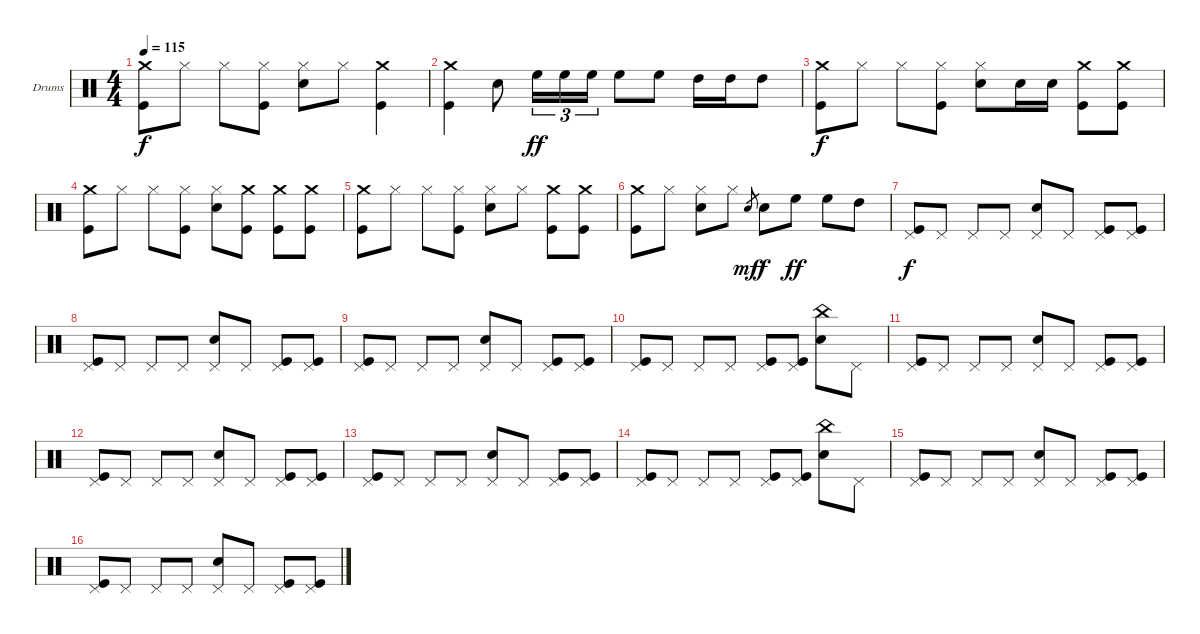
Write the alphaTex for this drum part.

\defaultSystemsLayout 4
\bracketExtendMode groupsimilarinstruments
\firstSystemTrackNameOrientation horizontal
\otherSystemsTrackNameOrientation horizontal
\track ("Drumkit" "Drums") {instrument percussion}
\staff {score}
\articulation defaults
\ts (4 4)
\tempo 115
\clef neutral
\ks c
("Crash medium (hit)" "Kick (hit)").8{dy f} "Hi-Hat (closed)".8 "Hi-Hat (closed)".8 ("Hi-Hat (closed)" "Kick (hit)").8 ("Hi-Hat (closed)" "Snare (hit) 2").8 "Hi-Hat (closed)".8 ("Crash medium (hit)" "Kick (hit)").4 |
("Crash medium (hit)" "Kick (hit)").4 "Snare (hit) 2".8 "High Floor Tom (hit)".16{tu (3 2) dy ff} "High Floor Tom (hit)".16{tu (3 2)} "High Floor Tom (hit)".16{tu (3 2)} "High Floor Tom (hit)".8 "High Floor Tom (hit)".8 "High Tom (hit)".16 "High Tom (hit)".16 "High Tom (hit)".8 |
("Crash medium (hit)" "Kick (hit)").8{dy f} "Hi-Hat (closed)".8 "Hi-Hat (closed)".8 ("Hi-Hat (closed)" "Kick (hit)").8 ("Hi-Hat (closed)" "Snare (hit) 2").8 "Snare (hit) 2".16 "Snare (hit) 2".16 ("Crash medium (hit)" "Kick (hit)").8 ("Crash medium (hit)" "Kick (hit)").8 |
("Crash medium (hit)" "Kick (hit)").8 "Hi-Hat (closed)".8 "Hi-Hat (closed)".8 ("Hi-Hat (closed)" "Kick (hit)").8 ("Hi-Hat (closed)" "Snare (hit) 2").8 ("Crash medium (hit)" "Kick (hit)").8 ("Crash medium (hit)" "Kick (hit)").8 ("Crash medium (hit)" "Kick (hit)").8 |
("Crash medium (hit)" "Kick (hit)").8 "Hi-Hat (closed)".8 "Hi-Hat (closed)".8 ("Hi-Hat (closed)" "Kick (hit)").8 ("Hi-Hat (closed)" "Snare (hit) 2").8 "Hi-Hat (closed)".8 ("Crash medium (hit)" "Kick (hit)").8 ("Crash medium (hit)" "Kick (hit)").8 |
("Crash medium (hit)" "Kick (hit)").8 "Hi-Hat (closed)".8 ("Hi-Hat (closed)" "Snare (hit) 2").8 "Hi-Hat (closed)".8 "Snare (hit) 2".8{gr dy mf} "Snare (hit) 2".8{dy f} "High Floor Tom (hit)".8{dy ff} "High Floor Tom (hit)".8 "High Tom (hit)".8 |
("Pedal Hi-Hat (hit)" "Kick (hit)").8{dy f} "Pedal Hi-Hat (hit)".8 "Pedal Hi-Hat (hit)".8 "Pedal Hi-Hat (hit)".8 ("Pedal Hi-Hat (hit)" "Snare (hit) 2").8 "Pedal Hi-Hat (hit)".8 ("Pedal Hi-Hat (hit)" "Kick (hit)").8 ("Pedal Hi-Hat (hit)" "Kick (hit)").8 |
("Kick (hit)" "Pedal Hi-Hat (hit)").8 "Pedal Hi-Hat (hit)".8 "Pedal Hi-Hat (hit)".8 "Pedal Hi-Hat (hit)".8 ("Pedal Hi-Hat (hit)" "Snare (hit) 2").8 "Pedal Hi-Hat (hit)".8 ("Pedal Hi-Hat (hit)" "Kick (hit)").8 ("Pedal Hi-Hat (hit)" "Kick (hit)").8 |
("Kick (hit)" "Pedal Hi-Hat (hit)").8 "Pedal Hi-Hat (hit)".8 "Pedal Hi-Hat (hit)".8 "Pedal Hi-Hat (hit)".8 ("Pedal Hi-Hat (hit)" "Snare (hit) 2").8 "Pedal Hi-Hat (hit)".8 ("Pedal Hi-Hat (hit)" "Kick (hit)").8 ("Pedal Hi-Hat (hit)" "Kick (hit)").8 |
("Kick (hit)" "Pedal Hi-Hat (hit)").8 "Pedal Hi-Hat (hit)".8 "Pedal Hi-Hat (hit)".8 "Pedal Hi-Hat (hit)".8 ("Pedal Hi-Hat (hit)" "Kick (hit)").8 ("Pedal Hi-Hat (hit)" "Kick (hit)").8 ("China (hit)" "Snare (hit) 2").8 "Pedal Hi-Hat (hit)".8 |
("Pedal Hi-Hat (hit)" "Kick (hit)").8 "Pedal Hi-Hat (hit)".8 "Pedal Hi-Hat (hit)".8 "Pedal Hi-Hat (hit)".8 ("Pedal Hi-Hat (hit)" "Snare (hit) 2").8 "Pedal Hi-Hat (hit)".8 ("Pedal Hi-Hat (hit)" "Kick (hit)").8 ("Pedal Hi-Hat (hit)" "Kick (hit)").8 |
("Kick (hit)" "Pedal Hi-Hat (hit)").8 "Pedal Hi-Hat (hit)".8 "Pedal Hi-Hat (hit)".8 "Pedal Hi-Hat (hit)".8 ("Pedal Hi-Hat (hit)" "Snare (hit) 2").8 "Pedal Hi-Hat (hit)".8 ("Pedal Hi-Hat (hit)" "Kick (hit)").8 ("Pedal Hi-Hat (hit)" "Kick (hit)").8 |
("Kick (hit)" "Pedal Hi-Hat (hit)").8 "Pedal Hi-Hat (hit)".8 "Pedal Hi-Hat (hit)".8 "Pedal Hi-Hat (hit)".8 ("Pedal Hi-Hat (hit)" "Snare (hit) 2").8 "Pedal Hi-Hat (hit)".8 ("Pedal Hi-Hat (hit)" "Kick (hit)").8 ("Pedal Hi-Hat (hit)" "Kick (hit)").8 |
("Kick (hit)" "Pedal Hi-Hat (hit)").8 "Pedal Hi-Hat (hit)".8 "Pedal Hi-Hat (hit)".8 "Pedal Hi-Hat (hit)".8 ("Pedal Hi-Hat (hit)" "Kick (hit)").8 ("Pedal Hi-Hat (hit)" "Kick (hit)").8 ("China (hit)" "Snare (hit) 2").8 "Pedal Hi-Hat (hit)".8 |
("Pedal Hi-Hat (hit)" "Kick (hit)").8 "Pedal Hi-Hat (hit)".8 "Pedal Hi-Hat (hit)".8 "Pedal Hi-Hat (hit)".8 ("Pedal Hi-Hat (hit)" "Snare (hit) 2").8 "Pedal Hi-Hat (hit)".8 ("Pedal Hi-Hat (hit)" "Kick (hit)").8 ("Pedal Hi-Hat (hit)" "Kick (hit)").8 |
("Kick (hit)" "Pedal Hi-Hat (hit)").8 "Pedal Hi-Hat (hit)".8 "Pedal Hi-Hat (hit)".8 "Pedal Hi-Hat (hit)".8 ("Pedal Hi-Hat (hit)" "Snare (hit) 2").8 "Pedal Hi-Hat (hit)".8 ("Pedal Hi-Hat (hit)" "Kick (hit)").8 ("Pedal Hi-Hat (hit)" "Kick (hit)").8
